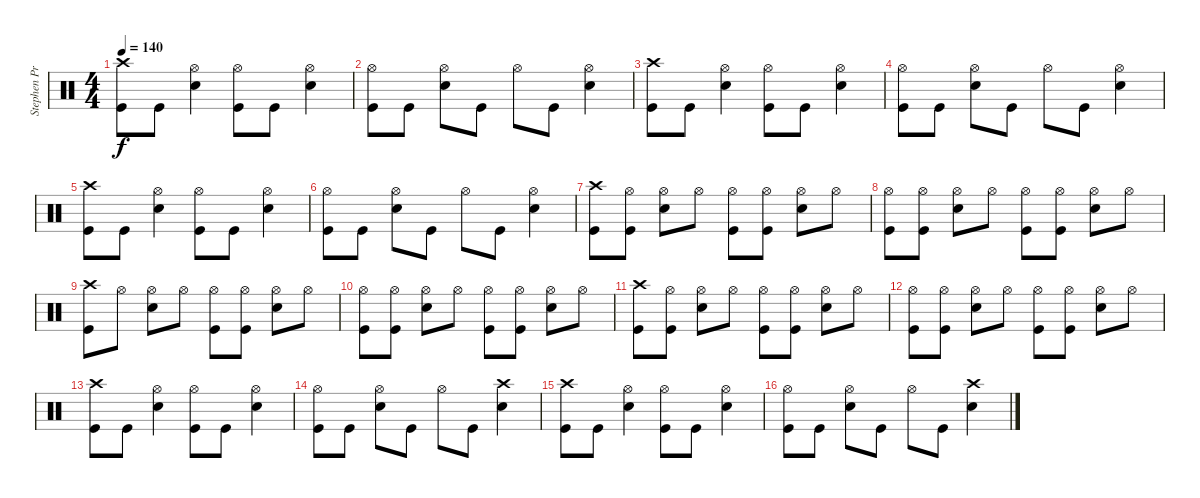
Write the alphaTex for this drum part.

\track ("Stephen Priestly-Drums" "Stephen Pr") {instrument percussion}
\staff {score}
\articulation defaults
\ts (4 4)
\tempo 140
\clef neutral
\ks c
("Crash high (hit)" "Kick (hit)").8{dy f} "Kick (hit)".8 ("Hi-Hat (open)" "Snare (hit) 2").4 ("Hi-Hat (open)" "Kick (hit)").8 "Kick (hit)".8 ("Hi-Hat (open)" "Snare (hit) 2").4 |
("Hi-Hat (open)" "Kick (hit)").8 "Kick (hit)".8 ("Hi-Hat (open)" "Snare (hit) 2").8 "Kick (hit)".8 "Hi-Hat (open)".8 "Kick (hit)".8 ("Hi-Hat (open)" "Snare (hit) 2").4 |
("Crash high (hit)" "Kick (hit)").8 "Kick (hit)".8 ("Hi-Hat (open)" "Snare (hit) 2").4 ("Hi-Hat (open)" "Kick (hit)").8 "Kick (hit)".8 ("Hi-Hat (open)" "Snare (hit) 2").4 |
("Hi-Hat (open)" "Kick (hit)").8 "Kick (hit)".8 ("Hi-Hat (open)" "Snare (hit) 2").8 "Kick (hit)".8 "Hi-Hat (open)".8 "Kick (hit)".8 ("Hi-Hat (open)" "Snare (hit) 2").4 |
("Crash high (hit)" "Kick (hit)").8 "Kick (hit)".8 ("Hi-Hat (open)" "Snare (hit) 2").4 ("Hi-Hat (open)" "Kick (hit)").8 "Kick (hit)".8 ("Hi-Hat (open)" "Snare (hit) 2").4 |
("Hi-Hat (open)" "Kick (hit)").8 "Kick (hit)".8 ("Hi-Hat (open)" "Snare (hit) 2").8 "Kick (hit)".8 "Hi-Hat (open)".8 "Kick (hit)".8 ("Hi-Hat (open)" "Snare (hit) 2").4 |
("Crash high (hit)" "Kick (hit)").8 ("Hi-Hat (open)" "Kick (hit)").8 ("Hi-Hat (open)" "Snare (hit) 2").8 "Hi-Hat (open)".8 ("Hi-Hat (open)" "Kick (hit)").8 ("Hi-Hat (open)" "Kick (hit)").8 ("Hi-Hat (open)" "Snare (hit) 2").8 "Hi-Hat (open)".8 |
("Hi-Hat (open)" "Kick (hit)").8 ("Hi-Hat (open)" "Kick (hit)").8 ("Hi-Hat (open)" "Snare (hit) 2").8 "Hi-Hat (open)".8 ("Hi-Hat (open)" "Kick (hit)").8 ("Hi-Hat (open)" "Kick (hit)").8 ("Hi-Hat (open)" "Snare (hit) 2").8 "Hi-Hat (open)".8 |
("Crash high (hit)" "Kick (hit)").8 "Hi-Hat (open)".8 ("Hi-Hat (open)" "Snare (hit) 2").8 "Hi-Hat (open)".8 ("Hi-Hat (open)" "Kick (hit)").8 ("Hi-Hat (open)" "Kick (hit)").8 ("Hi-Hat (open)" "Snare (hit) 2").8 "Hi-Hat (open)".8 |
("Hi-Hat (open)" "Kick (hit)").8 ("Hi-Hat (open)" "Kick (hit)").8 ("Hi-Hat (open)" "Snare (hit) 2").8 "Hi-Hat (open)".8 ("Hi-Hat (open)" "Kick (hit)").8 ("Hi-Hat (open)" "Kick (hit)").8 ("Hi-Hat (open)" "Snare (hit) 2").8 "Hi-Hat (open)".8 |
("Crash high (hit)" "Kick (hit)").8 ("Hi-Hat (open)" "Kick (hit)").8 ("Hi-Hat (open)" "Snare (hit) 2").8 "Hi-Hat (open)".8 ("Hi-Hat (open)" "Kick (hit)").8 ("Hi-Hat (open)" "Kick (hit)").8 ("Hi-Hat (open)" "Snare (hit) 2").8 "Hi-Hat (open)".8 |
("Hi-Hat (open)" "Kick (hit)").8 ("Hi-Hat (open)" "Kick (hit)").8 ("Hi-Hat (open)" "Snare (hit) 2").8 "Hi-Hat (open)".8 ("Hi-Hat (open)" "Kick (hit)").8 ("Hi-Hat (open)" "Kick (hit)").8 ("Hi-Hat (open)" "Snare (hit) 2").8 "Hi-Hat (open)".8 |
("Crash high (hit)" "Kick (hit)").8 "Kick (hit)".8 ("Hi-Hat (open)" "Snare (hit) 2").4 ("Hi-Hat (open)" "Kick (hit)").8 "Kick (hit)".8 ("Hi-Hat (open)" "Snare (hit) 2").4 |
("Hi-Hat (open)" "Kick (hit)").8 "Kick (hit)".8 ("Hi-Hat (open)" "Snare (hit) 2").8 "Kick (hit)".8 "Hi-Hat (open)".8 "Kick (hit)".8 ("Crash high (hit)" "Snare (hit) 2").4 |
("Crash high (hit)" "Kick (hit)").8 "Kick (hit)".8 ("Hi-Hat (open)" "Snare (hit) 2").4 ("Hi-Hat (open)" "Kick (hit)").8 "Kick (hit)".8 ("Hi-Hat (open)" "Snare (hit) 2").4 |
("Hi-Hat (open)" "Kick (hit)").8 "Kick (hit)".8 ("Hi-Hat (open)" "Snare (hit) 2").8 "Kick (hit)".8 "Hi-Hat (open)".8 "Kick (hit)".8 ("Crash high (hit)" "Snare (hit) 2").4
